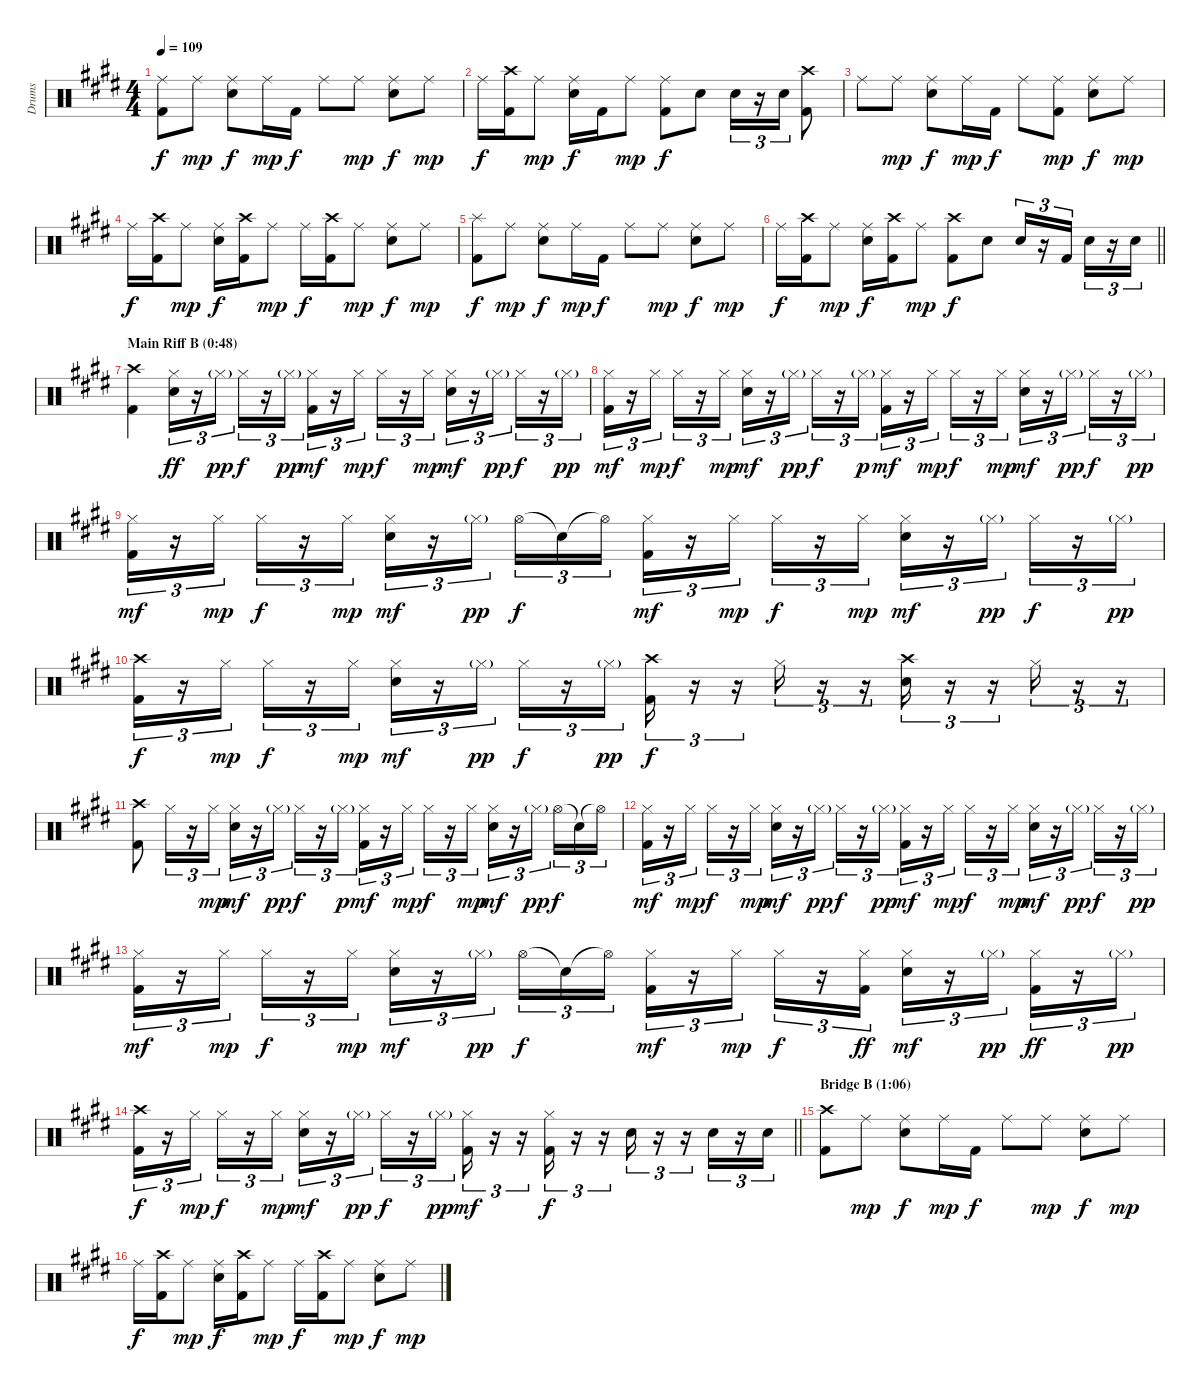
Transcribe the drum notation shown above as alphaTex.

\track ("Drums" "Drums") {instrument percussion}
\staff {score}
\articulation defaults
\ts (4 4)
\tempo 109
\clef neutral
\ks e
("Ride (middle)" "Kick (hit) 2").8{dy f} "Ride (middle)".8{dy mp} ("Ride (middle)" "Electric Snare (hit)").8{dy f} "Ride (middle)".16{dy mp} "Kick (hit) 2".16{dy f} "Ride (middle)".8 "Ride (middle)".8{dy mp} ("Ride (middle)" "Electric Snare (hit)").8{dy f} "Ride (middle)".8{dy mp} |
"Ride (middle)".16{dy f} ("Crash high (hit)" "Kick (hit) 2").16 "Ride (middle)".8{dy mp} ("Ride (middle)" "Electric Snare (hit)").16{dy f} "Kick (hit) 2".16 "Ride (middle)".8{dy mp} ("Ride (middle)" "Kick (hit) 2").8{dy f} "Electric Snare (hit)".8 "Electric Snare (hit)".16{tu (3 2)} r.16{tu (3 2)} "Electric Snare (hit)".16{tu (3 2)} ("Crash high (hit)" "Kick (hit) 2").8 |
"Ride (middle)".8 "Ride (middle)".8{dy mp} ("Ride (middle)" "Electric Snare (hit)").8{dy f} "Ride (middle)".16{dy mp} "Kick (hit) 2".16{dy f} "Ride (middle)".8 ("Ride (middle)" "Kick (hit) 2").8{dy mp} ("Ride (middle)" "Electric Snare (hit)").8{dy f} "Ride (middle)".8{dy mp} |
"Ride (middle)".16{dy f} ("Crash high (hit)" "Kick (hit) 2").16 "Ride (middle)".8{dy mp} ("Ride (middle)" "Electric Snare (hit)").16{dy f} ("Crash high (hit)" "Kick (hit) 2").16 "Ride (middle)".8{dy mp} "Ride (middle)".16{dy f} ("Crash high (hit)" "Kick (hit) 2").16 "Ride (middle)".8{dy mp} ("Ride (middle)" "Electric Snare (hit)").8{dy f} "Ride (middle)".8{dy mp} |
("Splash (hit)" "Kick (hit) 2").8{dy f} "Ride (middle)".8{dy mp} ("Ride (middle)" "Electric Snare (hit)").8{dy f} "Ride (middle)".16{dy mp} "Kick (hit) 2".16{dy f} "Ride (middle)".8 "Ride (middle)".8{dy mp} ("Ride (middle)" "Electric Snare (hit)").8{dy f} "Ride (middle)".8{dy mp} |
\barLineRight lightlight "Ride (middle)".16{dy f}
("Crash high (hit)" "Kick (hit) 2").16 "Ride (middle)".8{dy mp} ("Ride (middle)" "Electric Snare (hit)").16{dy f} ("Crash high (hit)" "Kick (hit) 2").16 "Ride (middle)".8{dy mp} ("Crash high (hit)" "Kick (hit) 2").8{dy f} "Electric Snare (hit)".8 "Electric Snare (hit)".16{tu (3 2)} r.16{tu (3 2)} "Kick (hit) 2".16{tu (3 2)} "Electric Snare (hit)".16{tu (3 2)} r.16{tu (3 2)} "Electric Snare (hit)".16{tu (3 2)} |
\section ("" "Main Riff B (0:48)")
("Crash high (hit)" "Kick (hit) 2").4 ("Hi-Hat (closed)" "Electric Snare (hit)").16{tu (3 2) dy ff} r.16{tu (3 2)} "Hi-Hat (closed)"{g}.16{tu (3 2) dy pp} "Hi-Hat (closed)".16{tu (3 2) dy f} r.16{tu (3 2)} "Hi-Hat (closed)"{g}.16{tu (3 2) dy pp} ("Hi-Hat (closed)" "Kick (hit) 2").16{tu (3 2) dy mf} r.16{tu (3 2)} "Hi-Hat (closed)".16{tu (3 2) dy mp} "Hi-Hat (closed)".16{tu (3 2) dy f} r.16{tu (3 2)} "Hi-Hat (closed)".16{tu (3 2) dy mp} ("Hi-Hat (closed)" "Electric Snare (hit)").16{tu (3 2) dy mf} r.16{tu (3 2)} "Hi-Hat (closed)"{g}.16{tu (3 2) dy pp} "Hi-Hat (closed)".16{tu (3 2) dy f} r.16{tu (3 2)} "Hi-Hat (closed)"{g}.16{tu (3 2) dy pp} |
("Hi-Hat (closed)" "Kick (hit) 2").16{tu (3 2) dy mf} r.16{tu (3 2)} "Hi-Hat (closed)".16{tu (3 2) dy mp} "Hi-Hat (closed)".16{tu (3 2) dy f} r.16{tu (3 2)} "Hi-Hat (closed)".16{tu (3 2) dy mp} ("Hi-Hat (closed)" "Electric Snare (hit)").16{tu (3 2) dy mf} r.16{tu (3 2)} "Hi-Hat (closed)"{g}.16{tu (3 2) dy pp} "Hi-Hat (closed)".16{tu (3 2) dy f} r.16{tu (3 2)} "Hi-Hat (closed)"{g}.16{tu (3 2) dy p} ("Hi-Hat (closed)" "Kick (hit) 2").16{tu (3 2) dy mf} r.16{tu (3 2)} "Hi-Hat (closed)".16{tu (3 2) dy mp} "Hi-Hat (closed)".16{tu (3 2) dy f} r.16{tu (3 2)} "Hi-Hat (closed)".16{tu (3 2) dy mp} ("Hi-Hat (closed)" "Electric Snare (hit)").16{tu (3 2) dy mf} r.16{tu (3 2)} "Hi-Hat (closed)"{g}.16{tu (3 2) dy pp} "Hi-Hat (closed)".16{tu (3 2) dy f} r.16{tu (3 2)} "Hi-Hat (closed)"{g}.16{tu (3 2) dy pp} |
("Hi-Hat (closed)" "Kick (hit) 2").16{tu (3 2) dy mf} r.16{tu (3 2)} "Hi-Hat (closed)".16{tu (3 2) dy mp} "Hi-Hat (closed)".16{tu (3 2) dy f} r.16{tu (3 2)} "Hi-Hat (closed)".16{tu (3 2) dy mp} ("Hi-Hat (closed)" "Electric Snare (hit)").16{tu (3 2) dy mf} r.16{tu (3 2)} "Hi-Hat (closed)"{g}.16{tu (3 2) dy pp beam splitsecondary} "Hi-Hat (open)".16{tu (3 2) dy f} "Snare (hit)"{t}.16{tu (3 2)} "Hi-Hat (open)"{t}.16{tu (3 2)} ("Hi-Hat (closed)" "Kick (hit) 2").16{tu (3 2) dy mf} r.16{tu (3 2)} "Hi-Hat (closed)".16{tu (3 2) dy mp} "Hi-Hat (closed)".16{tu (3 2) dy f} r.16{tu (3 2)} "Hi-Hat (closed)".16{tu (3 2) dy mp} ("Hi-Hat (closed)" "Electric Snare (hit)").16{tu (3 2) dy mf} r.16{tu (3 2)} "Hi-Hat (closed)"{g}.16{tu (3 2) dy pp} "Hi-Hat (closed)".16{tu (3 2) dy f} r.16{tu (3 2)} "Hi-Hat (closed)"{g}.16{tu (3 2) dy pp} |
("Crash high (hit)" "Kick (hit) 2").16{tu (3 2) dy f} r.16{tu (3 2)} "Hi-Hat (closed)".16{tu (3 2) dy mp} "Hi-Hat (closed)".16{tu (3 2) dy f} r.16{tu (3 2)} "Hi-Hat (closed)".16{tu (3 2) dy mp} ("Hi-Hat (closed)" "Electric Snare (hit)").16{tu (3 2) dy mf} r.16{tu (3 2)} "Hi-Hat (closed)"{g}.16{tu (3 2) dy pp} "Hi-Hat (closed)".16{tu (3 2) dy f} r.16{tu (3 2)} "Hi-Hat (closed)"{g}.16{tu (3 2) dy pp} ("Crash high (hit)" "Kick (hit) 2").16{tu (3 2) dy f} r.16{tu (3 2)} r.16{tu (3 2)} "Hi-Hat (closed)".16{tu (3 2)} r.16{tu (3 2)} r.16{tu (3 2)} ("Crash high (hit)" "Electric Snare (hit)").16{tu (3 2)} r.16{tu (3 2)} r.16{tu (3 2)} "Hi-Hat (closed)".16{tu (3 2)} r.16{tu (3 2)} r.16{tu (3 2)} |
("Crash high (hit)" "Kick (hit) 2").8 "Hi-Hat (closed)".16{tu (3 2)} r.16{tu (3 2)} "Hi-Hat (closed)".16{tu (3 2) dy mp} ("Hi-Hat (closed)" "Electric Snare (hit)").16{tu (3 2) dy mf} r.16{tu (3 2)} "Hi-Hat (closed)"{g}.16{tu (3 2) dy pp} "Hi-Hat (closed)".16{tu (3 2) dy f} r.16{tu (3 2)} "Hi-Hat (closed)"{g}.16{tu (3 2) dy p} ("Hi-Hat (closed)" "Kick (hit) 2").16{tu (3 2) dy mf} r.16{tu (3 2)} "Hi-Hat (closed)".16{tu (3 2) dy mp} "Hi-Hat (closed)".16{tu (3 2) dy f} r.16{tu (3 2)} "Hi-Hat (closed)".16{tu (3 2) dy mp} ("Hi-Hat (closed)" "Electric Snare (hit)").16{tu (3 2) dy mf} r.16{tu (3 2)} "Hi-Hat (closed)"{g}.16{tu (3 2) dy pp beam splitsecondary} "Hi-Hat (open)".16{tu (3 2) dy f} "Snare (hit)"{t}.16{tu (3 2)} "Hi-Hat (open)"{t}.16{tu (3 2)} |
("Hi-Hat (closed)" "Kick (hit) 2").16{tu (3 2) dy mf} r.16{tu (3 2)} "Hi-Hat (closed)".16{tu (3 2) dy mp} "Hi-Hat (closed)".16{tu (3 2) dy f} r.16{tu (3 2)} "Hi-Hat (closed)".16{tu (3 2) dy mp} ("Hi-Hat (closed)" "Electric Snare (hit)").16{tu (3 2) dy mf} r.16{tu (3 2)} "Hi-Hat (closed)"{g}.16{tu (3 2) dy pp} "Hi-Hat (closed)".16{tu (3 2) dy f} r.16{tu (3 2)} "Hi-Hat (closed)"{g}.16{tu (3 2) dy pp} ("Hi-Hat (closed)" "Kick (hit) 2").16{tu (3 2) dy mf} r.16{tu (3 2)} "Hi-Hat (closed)".16{tu (3 2) dy mp} "Hi-Hat (closed)".16{tu (3 2) dy f} r.16{tu (3 2)} "Hi-Hat (closed)".16{tu (3 2) dy mp} ("Hi-Hat (closed)" "Electric Snare (hit)").16{tu (3 2) dy mf} r.16{tu (3 2)} "Hi-Hat (closed)"{g}.16{tu (3 2) dy pp} "Hi-Hat (closed)".16{tu (3 2) dy f} r.16{tu (3 2)} "Hi-Hat (closed)"{g}.16{tu (3 2) dy pp} |
("Hi-Hat (closed)" "Kick (hit) 2").16{tu (3 2) dy mf} r.16{tu (3 2)} "Hi-Hat (closed)".16{tu (3 2) dy mp} "Hi-Hat (closed)".16{tu (3 2) dy f} r.16{tu (3 2)} "Hi-Hat (closed)".16{tu (3 2) dy mp} ("Hi-Hat (closed)" "Electric Snare (hit)").16{tu (3 2) dy mf} r.16{tu (3 2)} "Hi-Hat (closed)"{g}.16{tu (3 2) dy pp beam splitsecondary} "Hi-Hat (open)".16{tu (3 2) dy f} "Snare (hit)"{t}.16{tu (3 2)} "Hi-Hat (open)"{t}.16{tu (3 2)} ("Hi-Hat (closed)" "Kick (hit) 2").16{tu (3 2) dy mf} r.16{tu (3 2)} "Hi-Hat (closed)".16{tu (3 2) dy mp} "Hi-Hat (closed)".16{tu (3 2) dy f} r.16{tu (3 2)} ("Hi-Hat (closed)" "Kick (hit) 2").16{tu (3 2) dy ff} ("Hi-Hat (closed)" "Electric Snare (hit)").16{tu (3 2) dy mf} r.16{tu (3 2)} "Hi-Hat (closed)"{g}.16{tu (3 2) dy pp} ("Hi-Hat (closed)" "Kick (hit) 2").16{tu (3 2) dy ff} r.16{tu (3 2)} "Hi-Hat (closed)"{g}.16{tu (3 2) dy pp} |
\barLineRight lightlight
("Crash high (hit)" "Kick (hit) 2").16{tu (3 2) dy f} r.16{tu (3 2)} "Hi-Hat (closed)".16{tu (3 2) dy mp} "Hi-Hat (closed)".16{tu (3 2) dy f} r.16{tu (3 2)} "Hi-Hat (closed)".16{tu (3 2) dy mp} ("Hi-Hat (closed)" "Electric Snare (hit)").16{tu (3 2) dy mf} r.16{tu (3 2)} "Hi-Hat (closed)"{g}.16{tu (3 2) dy pp} "Hi-Hat (closed)".16{tu (3 2) dy f} r.16{tu (3 2)} "Hi-Hat (closed)"{g}.16{tu (3 2) dy pp} ("Hi-Hat (closed)" "Kick (hit) 2").16{tu (3 2) dy mf} r.16{tu (3 2)} r.16{tu (3 2)} ("Hi-Hat (closed)" "Kick (hit) 2").16{tu (3 2) dy f} r.16{tu (3 2)} r.16{tu (3 2)} "Electric Snare (hit)".16{tu (3 2)} r.16{tu (3 2)} r.16{tu (3 2)} "Electric Snare (hit)".16{tu (3 2)} r.16{tu (3 2)} "Electric Snare (hit)".16{tu (3 2)} |
\section ("" "Bridge B (1:06)")
("Crash high (hit)" "Kick (hit) 2").8 "Ride (middle)".8{dy mp} ("Ride (middle)" "Electric Snare (hit)").8{dy f} "Ride (middle)".16{dy mp} "Kick (hit) 2".16{dy f} "Ride (middle)".8 "Ride (middle)".8{dy mp} ("Ride (middle)" "Electric Snare (hit)").8{dy f} "Ride (middle)".8{dy mp} |
"Ride (middle)".16{dy f} ("Crash high (hit)" "Kick (hit) 2").16 "Ride (middle)".8{dy mp} ("Ride (middle)" "Electric Snare (hit)").16{dy f} ("Crash high (hit)" "Kick (hit) 2").16 "Ride (middle)".8{dy mp} "Ride (middle)".16{dy f} ("Crash high (hit)" "Kick (hit) 2").16 "Ride (middle)".8{dy mp} ("Ride (middle)" "Electric Snare (hit)").8{dy f} "Ride (middle)".8{dy mp}
